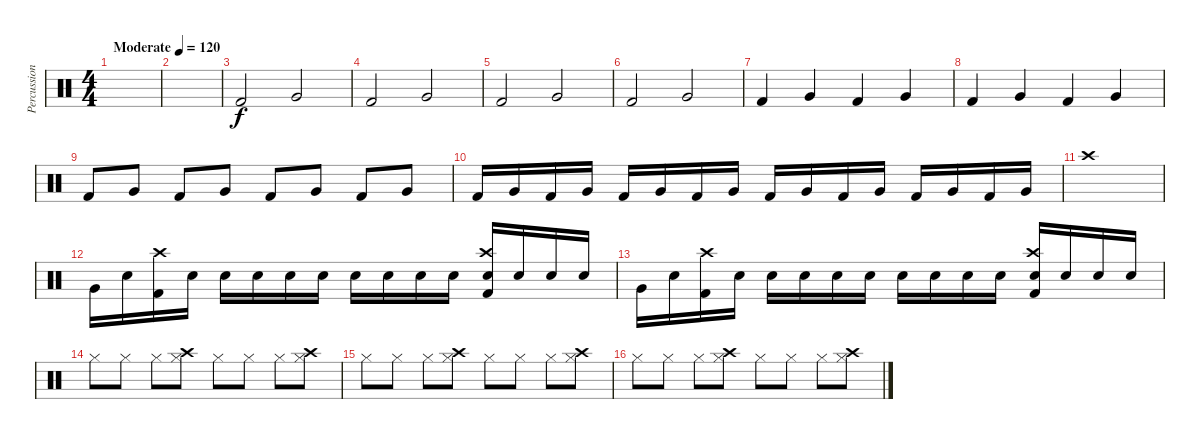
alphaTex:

\track ("Percussion" "Percussion") {instrument percussion}
\staff {score}
\articulation defaults
\ts (4 4)
\tempo (120 "Moderate")
\clef neutral
\ks c
|
|
"Kick (hit) 2".2 "Very Low Tom (hit)".2 |
"Kick (hit) 2".2 "Very Low Tom (hit)".2 |
"Kick (hit) 2".2 "Very Low Tom (hit)".2 |
"Kick (hit) 2".2 "Very Low Tom (hit)".2 |
"Kick (hit) 2".4 "Very Low Tom (hit)".4 "Kick (hit) 2".4 "Very Low Tom (hit)".4 |
"Kick (hit) 2".4 "Very Low Tom (hit)".4 "Kick (hit) 2".4 "Very Low Tom (hit)".4 |
"Kick (hit) 2".8 "Very Low Tom (hit)".8 "Kick (hit) 2".8 "Very Low Tom (hit)".8 "Kick (hit) 2".8 "Very Low Tom (hit)".8 "Kick (hit) 2".8 "Very Low Tom (hit)".8 |
"Kick (hit) 2".16 "Very Low Tom (hit)".16 "Kick (hit) 2".16 "Very Low Tom (hit)".16 "Kick (hit) 2".16 "Very Low Tom (hit)".16 "Kick (hit) 2".16 "Very Low Tom (hit)".16 "Kick (hit) 2".16 "Very Low Tom (hit)".16 "Kick (hit) 2".16 "Very Low Tom (hit)".16 "Kick (hit) 2".16 "Very Low Tom (hit)".16 "Kick (hit) 2".16 "Very Low Tom (hit)".16 |
"Crash high (hit)".1 |
"Very Low Tom (hit)".16 "Electric Snare (hit)".16 ("Kick (hit) 2" "Crash high (hit)").16 "Electric Snare (hit)".16 "Electric Snare (hit)".16 "Electric Snare (hit)".16 "Electric Snare (hit)".16 "Electric Snare (hit)".16 "Electric Snare (hit)".16 "Electric Snare (hit)".16 "Electric Snare (hit)".16 "Electric Snare (hit)".16 ("Crash high (hit)" "Kick (hit) 2" "Electric Snare (hit)").16 "Electric Snare (hit)".16 "Electric Snare (hit)".16 "Electric Snare (hit)".16 |
"Very Low Tom (hit)".16 "Electric Snare (hit)".16 ("Kick (hit) 2" "Crash high (hit)").16 "Electric Snare (hit)".16 "Electric Snare (hit)".16 "Electric Snare (hit)".16 "Electric Snare (hit)".16 "Electric Snare (hit)".16 "Electric Snare (hit)".16 "Electric Snare (hit)".16 "Electric Snare (hit)".16 "Electric Snare (hit)".16 ("Crash high (hit)" "Kick (hit) 2" "Electric Snare (hit)").16 "Electric Snare (hit)".16 "Electric Snare (hit)".16 "Electric Snare (hit)".16 |
"Hi-Hat (closed)".8 "Hi-Hat (closed)".8 "Hi-Hat (closed)".8 ("Crash high (hit)" "Hi-Hat (closed)").8 "Hi-Hat (closed)".8 "Hi-Hat (closed)".8 "Hi-Hat (closed)".8 ("Crash high (hit)" "Hi-Hat (closed)").8 |
"Hi-Hat (closed)".8 "Hi-Hat (closed)".8 "Hi-Hat (closed)".8 ("Crash high (hit)" "Hi-Hat (closed)").8 "Hi-Hat (closed)".8 "Hi-Hat (closed)".8 "Hi-Hat (closed)".8 ("Crash high (hit)" "Hi-Hat (closed)").8 |
"Hi-Hat (closed)".8 "Hi-Hat (closed)".8 "Hi-Hat (closed)".8 ("Crash high (hit)" "Hi-Hat (closed)").8 "Hi-Hat (closed)".8 "Hi-Hat (closed)".8 "Hi-Hat (closed)".8 ("Crash high (hit)" "Hi-Hat (closed)").8
